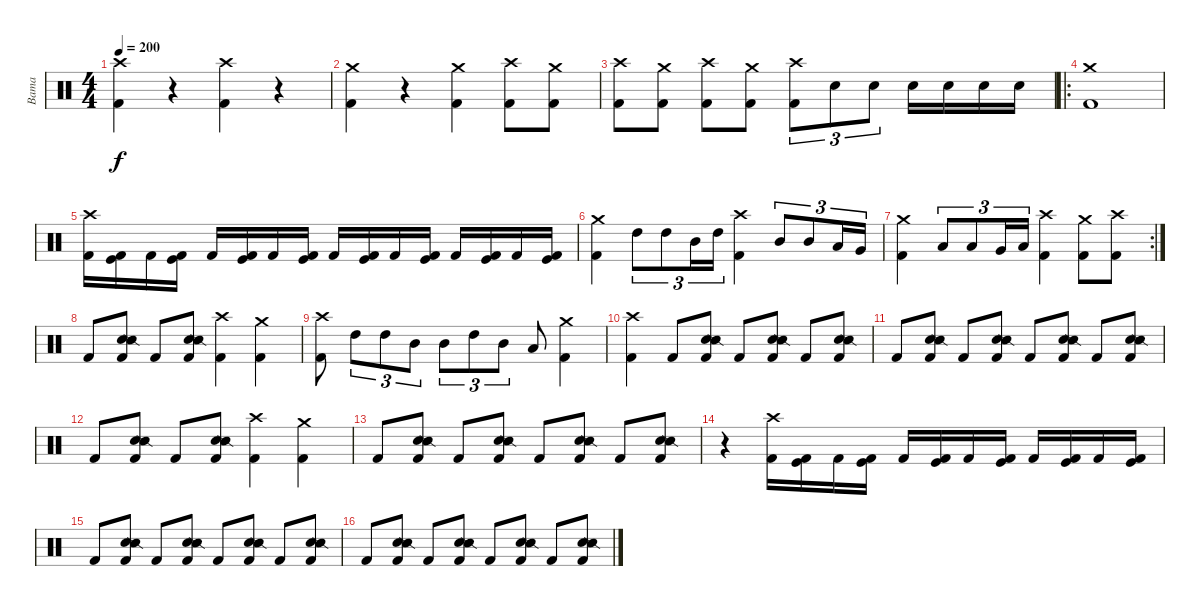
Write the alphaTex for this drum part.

\track ("Bama" "Bama") {instrument percussion}
\staff {score}
\articulation defaults
\ts (4 4)
\tempo 200
\clef neutral
\ks c
("Crash high (hit)" "Kick (hit) 2").4{dy f} r.4 ("Crash high (hit)" "Kick (hit) 2").4 r.4 |
("Crash medium (hit)" "Kick (hit) 2").4 r.4 ("Crash medium (hit)" "Kick (hit) 2").4 ("Crash high (hit)" "Kick (hit) 2").8 ("Crash medium (hit)" "Kick (hit) 2").8 |
("Crash high (hit)" "Kick (hit) 2").8 ("Crash medium (hit)" "Kick (hit) 2").8 ("Crash high (hit)" "Kick (hit) 2").8 ("Crash medium (hit)" "Kick (hit) 2").8 ("Crash high (hit)" "Kick (hit) 2").8{tu (3 2)} "Electric Snare (hit)".8{tu (3 2)} "Electric Snare (hit)".8{tu (3 2)} "Electric Snare (hit)".16 "Electric Snare (hit)".16 "Electric Snare (hit)".16 "Electric Snare (hit)".16 |
\ro
("Crash medium (hit)" "Kick (hit) 2").1 |
("Crash high (hit)" "Kick (hit) 2").16 ("Kick (hit)" "Kick (hit) 2").16 "Kick (hit) 2".16 ("Kick (hit)" "Kick (hit) 2").16 "Kick (hit) 2".16 ("Kick (hit)" "Kick (hit) 2").16 "Kick (hit) 2".16 ("Kick (hit)" "Kick (hit) 2").16 "Kick (hit) 2".16 ("Kick (hit)" "Kick (hit) 2").16 "Kick (hit) 2".16 ("Kick (hit)" "Kick (hit) 2").16 "Kick (hit) 2".16 ("Kick (hit)" "Kick (hit) 2").16 "Kick (hit) 2".16 ("Kick (hit)" "Kick (hit) 2").16 |
("Crash medium (hit)" "Kick (hit) 2").4 "High Tom (hit)".8{tu (3 2)} "High Tom (hit)".8{tu (3 2)} "Mid Tom (hit)".16{tu (3 2)} "High Tom (hit)".16{tu (3 2)} ("Crash high (hit)" "Kick (hit) 2").4 "Mid Tom (hit)".8{tu (3 2)} "Mid Tom (hit)".8{tu (3 2)} "Low Tom (hit)".16{tu (3 2)} "Very Low Tom (hit)".16{tu (3 2)} |
\rc 2
("Crash medium (hit)" "Kick (hit) 2").4 "Low Tom (hit)".8{tu (3 2)} "Low Tom (hit)".8{tu (3 2)} "Very Low Tom (hit)".16{tu (3 2)} "Low Tom (hit)".16{tu (3 2)} ("Crash high (hit)" "Kick (hit) 2").4 ("Crash medium (hit)" "Kick (hit) 2").8 ("Crash high (hit)" "Kick (hit) 2").8 |
"Kick (hit) 2".8 ("Electric Snare (hit)" "Snare (side stick) 2" "Kick (hit) 2").8 "Kick (hit) 2".8 ("Electric Snare (hit)" "Snare (side stick) 2" "Kick (hit) 2").8 ("Crash high (hit)" "Kick (hit) 2").4 ("Crash medium (hit)" "Kick (hit) 2").4 |
("Crash high (hit)" "Kick (hit) 2").8 "High Tom (hit)".8{tu (3 2)} "High Tom (hit)".8{tu (3 2)} "Mid Tom (hit)".8{tu (3 2)} "Mid Tom (hit)".8{tu (3 2)} "High Tom (hit)".8{tu (3 2)} "Mid Tom (hit)".8{tu (3 2)} "Low Tom (hit)".8 ("Crash medium (hit)" "Kick (hit) 2").4 |
("Crash high (hit)" "Kick (hit) 2").4 "Kick (hit) 2".8 ("Electric Snare (hit)" "Snare (side stick) 2" "Kick (hit) 2").8 "Kick (hit) 2".8 ("Electric Snare (hit)" "Snare (side stick) 2" "Kick (hit) 2").8 "Kick (hit) 2".8 ("Electric Snare (hit)" "Snare (side stick) 2" "Kick (hit) 2").8 |
"Kick (hit) 2".8 ("Electric Snare (hit)" "Snare (side stick) 2" "Kick (hit) 2").8 "Kick (hit) 2".8 ("Electric Snare (hit)" "Snare (side stick) 2" "Kick (hit) 2").8 "Kick (hit) 2".8 ("Electric Snare (hit)" "Snare (side stick) 2" "Kick (hit) 2").8 "Kick (hit) 2".8 ("Electric Snare (hit)" "Snare (side stick) 2" "Kick (hit) 2").8 |
"Kick (hit) 2".8 ("Electric Snare (hit)" "Snare (side stick) 2" "Kick (hit) 2").8 "Kick (hit) 2".8 ("Electric Snare (hit)" "Snare (side stick) 2" "Kick (hit) 2").8 ("Crash high (hit)" "Kick (hit) 2").4 ("Crash medium (hit)" "Kick (hit) 2").4 |
"Kick (hit) 2".8 ("Electric Snare (hit)" "Snare (side stick) 2" "Kick (hit) 2").8 "Kick (hit) 2".8 ("Electric Snare (hit)" "Snare (side stick) 2" "Kick (hit) 2").8 "Kick (hit) 2".8 ("Electric Snare (hit)" "Snare (side stick) 2" "Kick (hit) 2").8 "Kick (hit) 2".8 ("Electric Snare (hit)" "Snare (side stick) 2" "Kick (hit) 2").8 |
r.4 ("Crash high (hit)" "Kick (hit) 2").16 ("Kick (hit)" "Kick (hit) 2").16 "Kick (hit) 2".16 ("Kick (hit)" "Kick (hit) 2").16 "Kick (hit) 2".16 ("Kick (hit)" "Kick (hit) 2").16 "Kick (hit) 2".16 ("Kick (hit)" "Kick (hit) 2").16 "Kick (hit) 2".16 ("Kick (hit)" "Kick (hit) 2").16 "Kick (hit) 2".16 ("Kick (hit)" "Kick (hit) 2").16 |
"Kick (hit) 2".8 ("Electric Snare (hit)" "Snare (side stick) 2" "Kick (hit) 2").8 "Kick (hit) 2".8 ("Electric Snare (hit)" "Snare (side stick) 2" "Kick (hit) 2").8 "Kick (hit) 2".8 ("Electric Snare (hit)" "Snare (side stick) 2" "Kick (hit) 2").8 "Kick (hit) 2".8 ("Electric Snare (hit)" "Snare (side stick) 2" "Kick (hit) 2").8 |
"Kick (hit) 2".8 ("Electric Snare (hit)" "Snare (side stick) 2" "Kick (hit) 2").8 "Kick (hit) 2".8 ("Electric Snare (hit)" "Snare (side stick) 2" "Kick (hit) 2").8 "Kick (hit) 2".8 ("Electric Snare (hit)" "Snare (side stick) 2" "Kick (hit) 2").8 "Kick (hit) 2".8 ("Electric Snare (hit)" "Snare (side stick) 2" "Kick (hit) 2").8
